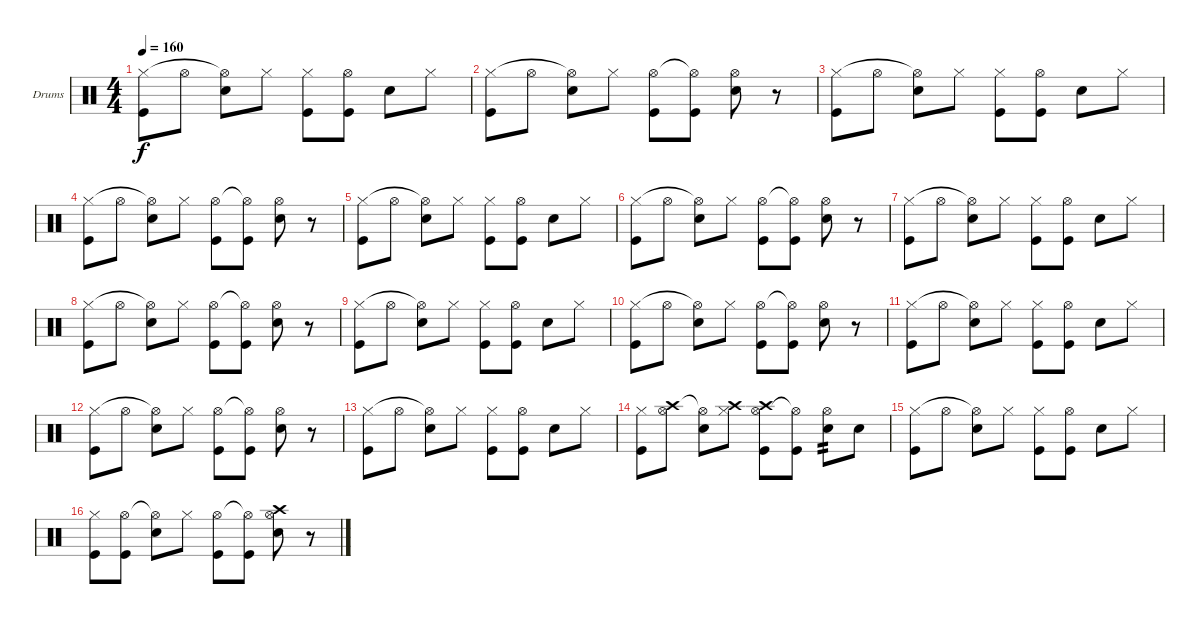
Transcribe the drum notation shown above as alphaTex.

\bracketExtendMode groupsimilarinstruments
\firstSystemTrackNameOrientation horizontal
\otherSystemsTrackNameOrientation horizontal
\track ("Drumkit" "Drums") {instrument percussion}
\staff {score}
\articulation defaults
\ts (4 4)
\tempo 160
\clef neutral
\ks c
("Kick (hit)" "Hi-Hat (closed)").8{dy f} "Hi-Hat (open)".8 ("Snare (hit) 2" "Hi-Hat (open)"{t}).8 "Hi-Hat (closed)".8 ("Kick (hit)" "Hi-Hat (closed)").8 ("Kick (hit)" "Hi-Hat (open)").8 "Snare (hit) 2".8 "Hi-Hat (closed)".8 |
("Kick (hit)" "Hi-Hat (closed)").8 "Hi-Hat (open)".8 ("Snare (hit) 2" "Hi-Hat (open)"{t}).8 "Hi-Hat (closed)".8 ("Kick (hit)" "Hi-Hat (open)").8 ("Kick (hit)" "Hi-Hat (open)"{t}).8 ("Snare (hit) 2" "Hi-Hat (open)").8 r.8 |
("Kick (hit)" "Hi-Hat (closed)").8 "Hi-Hat (open)".8 ("Snare (hit) 2" "Hi-Hat (open)"{t}).8 "Hi-Hat (closed)".8 ("Kick (hit)" "Hi-Hat (closed)").8 ("Kick (hit)" "Hi-Hat (open)").8 "Snare (hit) 2".8 "Hi-Hat (closed)".8 |
("Kick (hit)" "Hi-Hat (closed)").8 "Hi-Hat (open)".8 ("Snare (hit) 2" "Hi-Hat (open)"{t}).8 "Hi-Hat (closed)".8 ("Kick (hit)" "Hi-Hat (open)").8 ("Kick (hit)" "Hi-Hat (open)"{t}).8 ("Snare (hit) 2" "Hi-Hat (open)").8 r.8 |
("Kick (hit)" "Hi-Hat (closed)").8 "Hi-Hat (open)".8 ("Snare (hit) 2" "Hi-Hat (open)"{t}).8 "Hi-Hat (closed)".8 ("Kick (hit)" "Hi-Hat (closed)").8 ("Kick (hit)" "Hi-Hat (open)").8 "Snare (hit) 2".8 "Hi-Hat (closed)".8 |
("Kick (hit)" "Hi-Hat (closed)").8 "Hi-Hat (open)".8 ("Snare (hit) 2" "Hi-Hat (open)"{t}).8 "Hi-Hat (closed)".8 ("Kick (hit)" "Hi-Hat (open)").8 ("Kick (hit)" "Hi-Hat (open)"{t}).8 ("Snare (hit) 2" "Hi-Hat (open)").8 r.8 |
("Kick (hit)" "Hi-Hat (closed)").8 "Hi-Hat (open)".8 ("Snare (hit) 2" "Hi-Hat (open)"{t}).8 "Hi-Hat (closed)".8 ("Kick (hit)" "Hi-Hat (closed)").8 ("Kick (hit)" "Hi-Hat (open)").8 "Snare (hit) 2".8 "Hi-Hat (closed)".8 |
("Kick (hit)" "Hi-Hat (closed)").8 "Hi-Hat (open)".8 ("Snare (hit) 2" "Hi-Hat (open)"{t}).8 "Hi-Hat (closed)".8 ("Kick (hit)" "Hi-Hat (open)").8 ("Kick (hit)" "Hi-Hat (open)"{t}).8 ("Snare (hit) 2" "Hi-Hat (open)").8 r.8 |
("Kick (hit)" "Hi-Hat (closed)").8 "Hi-Hat (open)".8 ("Snare (hit) 2" "Hi-Hat (open)"{t}).8 "Hi-Hat (closed)".8 ("Kick (hit)" "Hi-Hat (closed)").8 ("Kick (hit)" "Hi-Hat (open)").8 "Snare (hit) 2".8 "Hi-Hat (closed)".8 |
("Kick (hit)" "Hi-Hat (closed)").8 "Hi-Hat (open)".8 ("Snare (hit) 2" "Hi-Hat (open)"{t}).8 "Hi-Hat (closed)".8 ("Kick (hit)" "Hi-Hat (open)").8 ("Kick (hit)" "Hi-Hat (open)"{t}).8 ("Snare (hit) 2" "Hi-Hat (open)").8 r.8 |
("Kick (hit)" "Hi-Hat (closed)").8 "Hi-Hat (open)".8 ("Snare (hit) 2" "Hi-Hat (open)"{t}).8 "Hi-Hat (closed)".8 ("Kick (hit)" "Hi-Hat (closed)").8 ("Kick (hit)" "Hi-Hat (open)").8 "Snare (hit) 2".8 "Hi-Hat (closed)".8 |
("Kick (hit)" "Hi-Hat (closed)").8 "Hi-Hat (open)".8 ("Snare (hit) 2" "Hi-Hat (open)"{t}).8 "Hi-Hat (closed)".8 ("Kick (hit)" "Hi-Hat (open)").8 ("Kick (hit)" "Hi-Hat (open)"{t}).8 ("Snare (hit) 2" "Hi-Hat (open)").8 r.8 |
("Kick (hit)" "Hi-Hat (closed)").8 "Hi-Hat (open)".8 ("Snare (hit) 2" "Hi-Hat (open)"{t}).8 "Hi-Hat (closed)".8 ("Kick (hit)" "Hi-Hat (closed)").8 ("Kick (hit)" "Hi-Hat (open)").8 "Snare (hit) 2".8 "Hi-Hat (closed)".8 |
("Kick (hit)" "Hi-Hat (closed)").8 ("Hi-Hat (open)" "Crash high (hit)").8 ("Snare (hit) 2" "Hi-Hat (open)"{t}).8 ("Hi-Hat (closed)" "Crash high (hit)").8 ("Kick (hit)" "Hi-Hat (open)" "Crash high (hit)").8 ("Kick (hit)" "Hi-Hat (open)"{t}).8 ("Snare (hit) 2" "Hi-Hat (open)").8{tp 2} "Snare (hit) 2".8 |
("Kick (hit)" "Hi-Hat (closed)").8 "Hi-Hat (open)".8 ("Snare (hit) 2" "Hi-Hat (open)"{t}).8 "Hi-Hat (closed)".8 ("Kick (hit)" "Hi-Hat (closed)").8 ("Kick (hit)" "Hi-Hat (open)").8 "Snare (hit) 2".8 "Hi-Hat (closed)".8 |
("Kick (hit)" "Hi-Hat (closed)").8 ("Kick (hit)" "Hi-Hat (open)").8 ("Snare (hit) 2" "Hi-Hat (open)"{t}).8 "Hi-Hat (closed)".8 ("Kick (hit)" "Hi-Hat (open)").8 ("Kick (hit)" "Hi-Hat (open)"{t}).8 ("Snare (hit) 2" "Hi-Hat (open)" "Crash high (hit)").8 r.8
